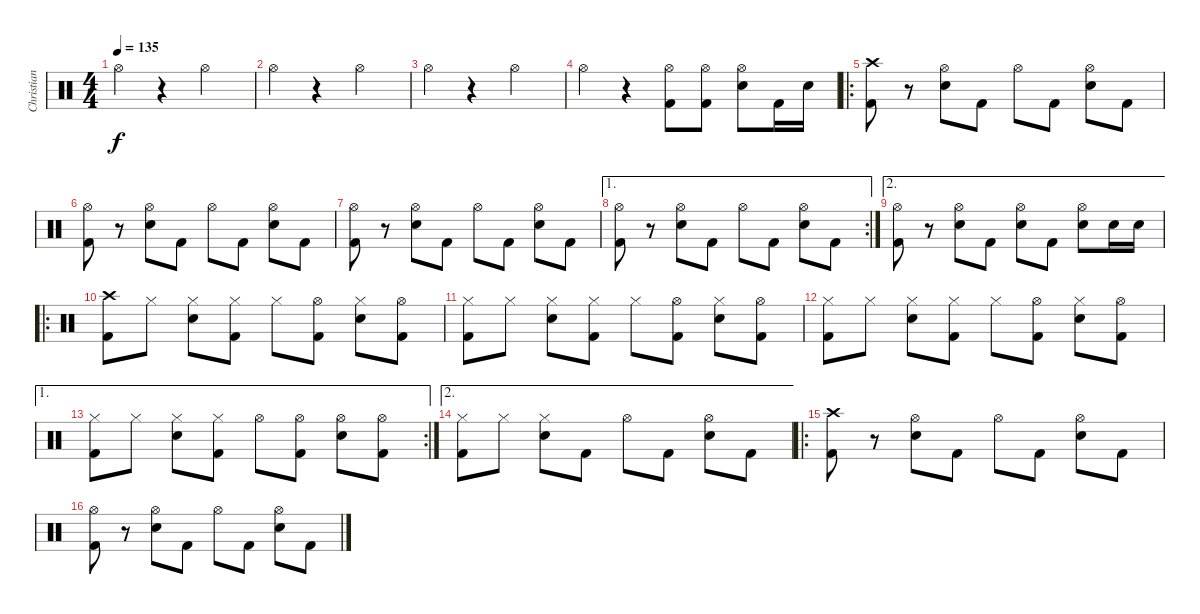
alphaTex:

\track ("Christian" "Christian") {instrument percussion}
\staff {score}
\articulation defaults
\ts (4 4)
\tempo 135
\clef neutral
\ks c "Hi-Hat (open)".4{dy f}
r.4 "Hi-Hat (open)".2 |
"Hi-Hat (open)".4 r.4 "Hi-Hat (open)".2 |
"Hi-Hat (open)".4 r.4 "Hi-Hat (open)".2 |
"Hi-Hat (open)".4 r.4 ("Hi-Hat (open)" "Kick (hit) 2").8 ("Hi-Hat (open)" "Kick (hit) 2").8 ("Hi-Hat (open)" "Snare (hit) 2").8 "Kick (hit) 2".16 "Snare (hit) 2".16 |
\ro
("Crash high (hit)" "Kick (hit) 2").8 r.8 ("Hi-Hat (open)" "Snare (hit) 2").8 "Kick (hit) 2".8 "Hi-Hat (open)".8 "Kick (hit) 2".8 ("Hi-Hat (open)" "Snare (hit) 2").8 "Kick (hit) 2".8 |
("Hi-Hat (open)" "Kick (hit) 2").8 r.8 ("Hi-Hat (open)" "Snare (hit) 2").8 "Kick (hit) 2".8 "Hi-Hat (open)".8 "Kick (hit) 2".8 ("Hi-Hat (open)" "Snare (hit) 2").8 "Kick (hit) 2".8 |
("Hi-Hat (open)" "Kick (hit) 2").8 r.8 ("Hi-Hat (open)" "Snare (hit) 2").8 "Kick (hit) 2".8 "Hi-Hat (open)".8 "Kick (hit) 2".8 ("Hi-Hat (open)" "Snare (hit) 2").8 "Kick (hit) 2".8 |
\ae 1
\rc 2
("Hi-Hat (open)" "Kick (hit) 2").8 r.8 ("Hi-Hat (open)" "Snare (hit) 2").8 "Kick (hit) 2".8 "Hi-Hat (open)".8 "Kick (hit) 2".8 ("Hi-Hat (open)" "Snare (hit) 2").8 "Kick (hit) 2".8 |
\ae 2
("Hi-Hat (open)" "Kick (hit) 2").8 r.8 ("Hi-Hat (open)" "Snare (hit) 2").8 "Kick (hit) 2".8 ("Hi-Hat (open)" "Snare (hit) 2").8 "Kick (hit) 2".8 ("Hi-Hat (open)" "Snare (hit) 2").8 "Snare (hit) 2".16 "Snare (hit) 2".16 |
\ro
("Crash high (hit)" "Kick (hit) 2").8 "Hi-Hat (closed)".8 ("Hi-Hat (closed)" "Snare (hit) 2").8 ("Hi-Hat (closed)" "Kick (hit) 2").8 "Hi-Hat (closed)".8 ("Hi-Hat (open)" "Kick (hit) 2").8 ("Hi-Hat (closed)" "Snare (hit) 2").8 ("Hi-Hat (open)" "Kick (hit) 2").8 |
("Hi-Hat (closed)" "Kick (hit) 2").8 "Hi-Hat (closed)".8 ("Hi-Hat (closed)" "Snare (hit) 2").8 ("Hi-Hat (closed)" "Kick (hit) 2").8 "Hi-Hat (closed)".8 ("Hi-Hat (open)" "Kick (hit) 2").8 ("Hi-Hat (closed)" "Snare (hit) 2").8 ("Hi-Hat (open)" "Kick (hit) 2").8 |
("Hi-Hat (closed)" "Kick (hit) 2").8 "Hi-Hat (closed)".8 ("Hi-Hat (closed)" "Snare (hit) 2").8 ("Hi-Hat (closed)" "Kick (hit) 2").8 "Hi-Hat (closed)".8 ("Hi-Hat (open)" "Kick (hit) 2").8 ("Hi-Hat (closed)" "Snare (hit) 2").8 ("Hi-Hat (open)" "Kick (hit) 2").8 |
\ae 1
\rc 2
("Hi-Hat (closed)" "Kick (hit) 2").8 "Hi-Hat (closed)".8 ("Hi-Hat (closed)" "Snare (hit) 2").8 ("Hi-Hat (closed)" "Kick (hit) 2").8 "Hi-Hat (open)".8 ("Hi-Hat (open)" "Kick (hit) 2").8 ("Hi-Hat (open)" "Snare (hit) 2").8 ("Hi-Hat (open)" "Kick (hit) 2").8 |
\ae 2
("Hi-Hat (closed)" "Kick (hit) 2").8 "Hi-Hat (closed)".8 ("Hi-Hat (closed)" "Snare (hit) 2").8 "Kick (hit) 2".8 "Hi-Hat (open)".8 "Kick (hit) 2".8 ("Hi-Hat (open)" "Snare (hit) 2").8 "Kick (hit) 2".8 |
\ro
("Crash high (hit)" "Kick (hit) 2").8 r.8 ("Hi-Hat (open)" "Snare (hit) 2").8 "Kick (hit) 2".8 "Hi-Hat (open)".8 "Kick (hit) 2".8 ("Hi-Hat (open)" "Snare (hit) 2").8 "Kick (hit) 2".8 |
("Hi-Hat (open)" "Kick (hit) 2").8 r.8 ("Hi-Hat (open)" "Snare (hit) 2").8 "Kick (hit) 2".8 "Hi-Hat (open)".8 "Kick (hit) 2".8 ("Hi-Hat (open)" "Snare (hit) 2").8 "Kick (hit) 2".8
